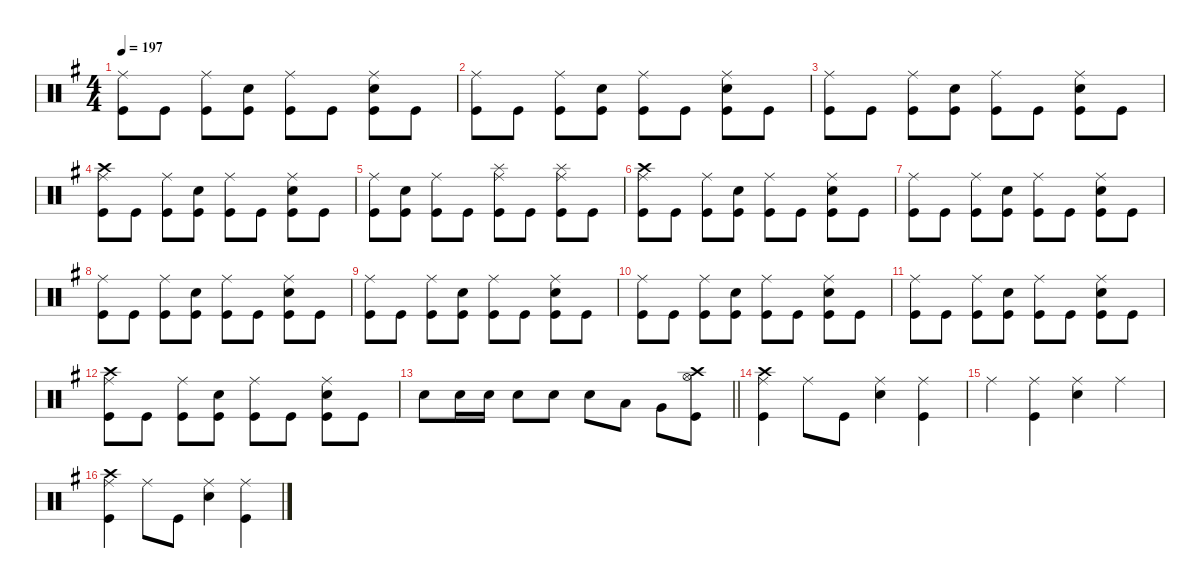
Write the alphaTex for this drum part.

\defaultSystemsLayout 4
\hideDynamics
\bracketExtendMode nobrackets
\singleTrackTrackNamePolicy hidden
\multiTrackTrackNamePolicy hidden
\firstSystemTrackNameMode fullname
\firstSystemTrackNameOrientation horizontal
\otherSystemsTrackNameOrientation horizontal
\track ("Drums" "drm.") {defaultSystemsLayout 4 instrument percussion}
\staff {score}
\articulation defaults
\ts (4 4)
\tempo 197
\clef neutral
\ks eminor
("Ride (middle)"{acc forcenatural} "Kick (hit)"{acc forcenatural}).8{dy f beam Down} "Kick (hit)"{acc forcenatural}.8{beam Down} ("Ride (middle)"{acc forcenatural} "Kick (hit)"{acc forcenatural}).8{beam Down} ("Snare (hit) 2"{acc forcenatural} "Kick (hit)"{acc forcenatural}).8{beam Down} ("Ride (middle)"{acc forcenatural} "Kick (hit)"{acc forcenatural}).8{beam Down} "Kick (hit)"{acc forcenatural}.8{beam Down} ("Ride (middle)"{acc forcenatural} "Snare (hit) 2"{acc forcenatural} "Kick (hit)"{acc forcenatural}).8{beam Down} "Kick (hit)"{acc forcenatural}.8{beam Down} |
("Ride (middle)"{acc forcenatural} "Kick (hit)"{acc forcenatural}).8{beam Down} "Kick (hit)"{acc forcenatural}.8{beam Down} ("Ride (middle)"{acc forcenatural} "Kick (hit)"{acc forcenatural}).8{beam Down} ("Snare (hit) 2"{acc forcenatural} "Kick (hit)"{acc forcenatural}).8{beam Down} ("Ride (middle)"{acc forcenatural} "Kick (hit)"{acc forcenatural}).8{beam Down} "Kick (hit)"{acc forcenatural}.8{beam Down} ("Ride (middle)"{acc forcenatural} "Snare (hit) 2"{acc forcenatural} "Kick (hit)"{acc forcenatural}).8{beam Down} "Kick (hit)"{acc forcenatural}.8{beam Down} |
("Ride (middle)"{acc forcenatural} "Kick (hit)"{acc forcenatural}).8{beam Down} "Kick (hit)"{acc forcenatural}.8{beam Down} ("Ride (middle)"{acc forcenatural} "Kick (hit)"{acc forcenatural}).8{beam Down} ("Snare (hit) 2"{acc forcenatural} "Kick (hit)"{acc forcenatural}).8{beam Down} ("Ride (middle)"{acc forcenatural} "Kick (hit)"{acc forcenatural}).8{beam Down} "Kick (hit)"{acc forcenatural}.8{beam Down} ("Ride (middle)"{acc forcenatural} "Snare (hit) 2"{acc forcenatural} "Kick (hit)"{acc forcenatural}).8{beam Down} "Kick (hit)"{acc forcenatural}.8{beam Down} |
("Crash high (hit)"{acc forcenatural} "Ride (middle)"{acc forcenatural} "Kick (hit)"{acc forcenatural}).8{beam Down} "Kick (hit)"{acc forcenatural}.8{beam Down} ("Ride (middle)"{acc forcenatural} "Kick (hit)"{acc forcenatural}).8{beam Down} ("Snare (hit) 2"{acc forcenatural} "Kick (hit)"{acc forcenatural}).8{beam Down} ("Ride (middle)"{acc forcenatural} "Kick (hit)"{acc forcenatural}).8{beam Down} "Kick (hit)"{acc forcenatural}.8{beam Down} ("Ride (middle)"{acc forcenatural} "Snare (hit) 2"{acc forcenatural} "Kick (hit)"{acc forcenatural}).8{beam Down} "Kick (hit)"{acc forcenatural}.8{beam Down} |
("Ride (middle)"{acc forcenatural} "Kick (hit)"{acc forcenatural}).8{beam Down} ("Snare (hit) 2"{acc forcenatural} "Kick (hit)"{acc forcenatural}).8{beam Down} ("Ride (middle)"{acc forcenatural} "Kick (hit)"{acc forcenatural}).8{beam Down} "Kick (hit)"{acc forcenatural}.8{beam Down} ("Splash (hit)"{acc forcenatural} "Ride (middle)"{acc forcenatural} "Kick (hit)"{acc forcenatural}).8{beam Down} "Kick (hit)"{acc forcenatural}.8{beam Down} ("Splash (hit)"{acc forcenatural} "Ride (middle)"{acc forcenatural} "Kick (hit)"{acc forcenatural}).8{beam Down} "Kick (hit)"{acc forcenatural}.8{beam Down} |
("Crash high (hit)"{acc forcenatural} "Ride (middle)"{acc forcenatural} "Kick (hit)"{acc forcenatural}).8{beam Down} "Kick (hit)"{acc forcenatural}.8{beam Down} ("Ride (middle)"{acc forcenatural} "Kick (hit)"{acc forcenatural}).8{beam Down} ("Snare (hit) 2"{acc forcenatural} "Kick (hit)"{acc forcenatural}).8{beam Down} ("Ride (middle)"{acc forcenatural} "Kick (hit)"{acc forcenatural}).8{beam Down} "Kick (hit)"{acc forcenatural}.8{beam Down} ("Ride (middle)"{acc forcenatural} "Snare (hit) 2"{acc forcenatural} "Kick (hit)"{acc forcenatural}).8{beam Down} "Kick (hit)"{acc forcenatural}.8{beam Down} |
("Ride (middle)"{acc forcenatural} "Kick (hit)"{acc forcenatural}).8{beam Down} "Kick (hit)"{acc forcenatural}.8{beam Down} ("Ride (middle)"{acc forcenatural} "Kick (hit)"{acc forcenatural}).8{beam Down} ("Snare (hit) 2"{acc forcenatural} "Kick (hit)"{acc forcenatural}).8{beam Down} ("Ride (middle)"{acc forcenatural} "Kick (hit)"{acc forcenatural}).8{beam Down} "Kick (hit)"{acc forcenatural}.8{beam Down} ("Ride (middle)"{acc forcenatural} "Snare (hit) 2"{acc forcenatural} "Kick (hit)"{acc forcenatural}).8{beam Down} "Kick (hit)"{acc forcenatural}.8{beam Down} |
("Ride (middle)"{acc forcenatural} "Kick (hit)"{acc forcenatural}).8{beam Down} "Kick (hit)"{acc forcenatural}.8{beam Down} ("Ride (middle)"{acc forcenatural} "Kick (hit)"{acc forcenatural}).8{beam Down} ("Snare (hit) 2"{acc forcenatural} "Kick (hit)"{acc forcenatural}).8{beam Down} ("Ride (middle)"{acc forcenatural} "Kick (hit)"{acc forcenatural}).8{beam Down} "Kick (hit)"{acc forcenatural}.8{beam Down} ("Ride (middle)"{acc forcenatural} "Snare (hit) 2"{acc forcenatural} "Kick (hit)"{acc forcenatural}).8{beam Down} "Kick (hit)"{acc forcenatural}.8{beam Down} |
("Ride (middle)"{acc forcenatural} "Kick (hit)"{acc forcenatural}).8{beam Down} "Kick (hit)"{acc forcenatural}.8{beam Down} ("Ride (middle)"{acc forcenatural} "Kick (hit)"{acc forcenatural}).8{beam Down} ("Snare (hit) 2"{acc forcenatural} "Kick (hit)"{acc forcenatural}).8{beam Down} ("Ride (middle)"{acc forcenatural} "Kick (hit)"{acc forcenatural}).8{beam Down} "Kick (hit)"{acc forcenatural}.8{beam Down} ("Ride (middle)"{acc forcenatural} "Snare (hit) 2"{acc forcenatural} "Kick (hit)"{acc forcenatural}).8{beam Down} "Kick (hit)"{acc forcenatural}.8{beam Down} |
("Ride (middle)"{acc forcenatural} "Kick (hit)"{acc forcenatural}).8{beam Down} "Kick (hit)"{acc forcenatural}.8{beam Down} ("Ride (middle)"{acc forcenatural} "Kick (hit)"{acc forcenatural}).8{beam Down} ("Snare (hit) 2"{acc forcenatural} "Kick (hit)"{acc forcenatural}).8{beam Down} ("Ride (middle)"{acc forcenatural} "Kick (hit)"{acc forcenatural}).8{beam Down} "Kick (hit)"{acc forcenatural}.8{beam Down} ("Ride (middle)"{acc forcenatural} "Snare (hit) 2"{acc forcenatural} "Kick (hit)"{acc forcenatural}).8{beam Down} "Kick (hit)"{acc forcenatural}.8{beam Down} |
("Ride (middle)"{acc forcenatural} "Kick (hit)"{acc forcenatural}).8{beam Down} "Kick (hit)"{acc forcenatural}.8{beam Down} ("Ride (middle)"{acc forcenatural} "Kick (hit)"{acc forcenatural}).8{beam Down} ("Snare (hit) 2"{acc forcenatural} "Kick (hit)"{acc forcenatural}).8{beam Down} ("Ride (middle)"{acc forcenatural} "Kick (hit)"{acc forcenatural}).8{beam Down} "Kick (hit)"{acc forcenatural}.8{beam Down} ("Ride (middle)"{acc forcenatural} "Snare (hit) 2"{acc forcenatural} "Kick (hit)"{acc forcenatural}).8{beam Down} "Kick (hit)"{acc forcenatural}.8{beam Down} |
("Crash high (hit)"{acc forcenatural} "Ride (middle)"{acc forcenatural} "Kick (hit)"{acc forcenatural}).8{beam Down} "Kick (hit)"{acc forcenatural}.8{beam Down} ("Ride (middle)"{acc forcenatural} "Kick (hit)"{acc forcenatural}).8{beam Down} ("Snare (hit) 2"{acc forcenatural} "Kick (hit)"{acc forcenatural}).8{beam Down} ("Ride (middle)"{acc forcenatural} "Kick (hit)"{acc forcenatural}).8{beam Down} "Kick (hit)"{acc forcenatural}.8{beam Down} ("Ride (middle)"{acc forcenatural} "Snare (hit) 2"{acc forcenatural} "Kick (hit)"{acc forcenatural}).8{beam Down} "Kick (hit)"{acc forcenatural}.8{beam Down} |
\barLineRight lightlight "Snare (hit) 2"{acc forcenatural}.8{beam Down} "Snare (hit) 2"{acc forcenatural}.16{dy mp beam Down} "Snare (hit) 2"{acc forcenatural}.16{beam Down} "Snare (hit) 2"{acc forcenatural}.8{dy f beam Down} "Snare (hit) 2"{acc forcenatural}.8{beam Down} "Snare (hit) 2"{acc forcenatural}.8{beam Down} "Low Tom (hit)"{acc forcenatural}.8{beam Down} "Very Low Tom (hit)"{acc forcenatural}.8{beam Down}
("Hi-Hat (open)"{acc forcenatural} "Crash high (hit)"{acc forcenatural} "Kick (hit)"{acc forcenatural}).8{beam Down} |
("Crash high (hit)"{acc forcenatural} "Ride (middle)"{acc forcenatural} "Kick (hit)"{acc forcenatural}).4{beam Down} "Ride (middle)"{acc forcenatural}.8{beam Down} "Kick (hit)"{acc forcenatural}.8{beam Down} ("Ride (middle)"{acc forcenatural} "Snare (hit) 2"{acc forcenatural}).4{beam Down} ("Ride (middle)"{acc forcenatural} "Kick (hit)"{acc forcenatural}).4{beam Down} |
"Ride (middle)"{acc forcenatural}.4{beam Down} ("Ride (middle)"{acc forcenatural} "Kick (hit)"{acc forcenatural}).4{beam Down} ("Ride (middle)"{acc forcenatural} "Snare (hit) 2"{acc forcenatural}).4{beam Down} "Ride (middle)"{acc forcenatural}.4{beam Down} |
("Crash high (hit)"{acc forcenatural} "Ride (middle)"{acc forcenatural} "Kick (hit)"{acc forcenatural}).4{beam Down} "Ride (middle)"{acc forcenatural}.8{beam Down} "Kick (hit)"{acc forcenatural}.8{beam Down} ("Ride (middle)"{acc forcenatural} "Snare (hit) 2"{acc forcenatural}).4{beam Down} ("Ride (middle)"{acc forcenatural} "Kick (hit)"{acc forcenatural}).4{beam Down}
